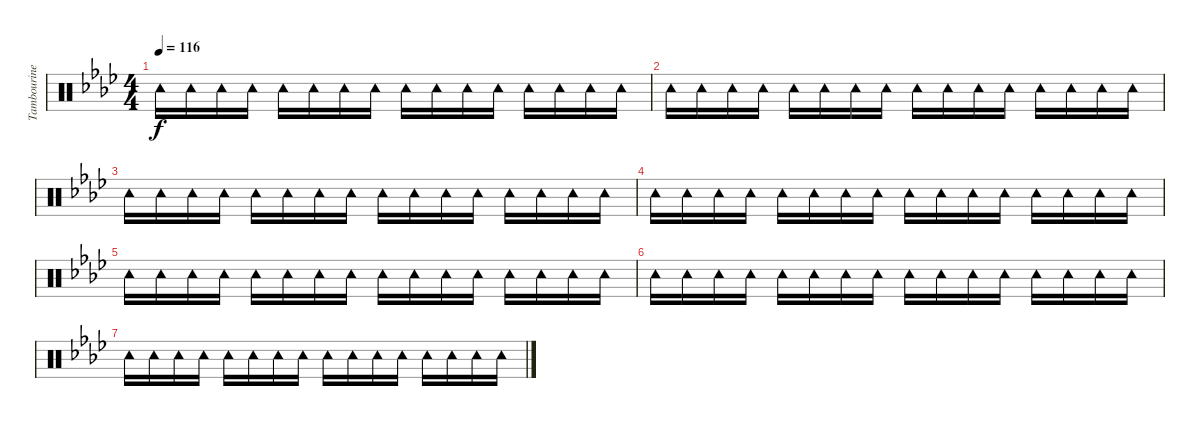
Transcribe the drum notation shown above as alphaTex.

\track ("Tambourine" "Tambourine") {instrument percussion}
\staff {score}
\articulation defaults
\ts (4 4)
\tempo 116
\clef neutral
\ks fminor "Tambourine (hit)".16{dy f} "Tambourine (hit)".16 "Tambourine (hit)".16 "Tambourine (hit)".16 "Tambourine (hit)".16 "Tambourine (hit)".16 "Tambourine (hit)".16 "Tambourine (hit)".16 "Tambourine (hit)".16 "Tambourine (hit)".16 "Tambourine (hit)".16 "Tambourine (hit)".16 "Tambourine (hit)".16 "Tambourine (hit)".16 "Tambourine (hit)".16 "Tambourine (hit)".16
|
"Tambourine (hit)".16 "Tambourine (hit)".16 "Tambourine (hit)".16 "Tambourine (hit)".16 "Tambourine (hit)".16 "Tambourine (hit)".16 "Tambourine (hit)".16 "Tambourine (hit)".16 "Tambourine (hit)".16 "Tambourine (hit)".16 "Tambourine (hit)".16 "Tambourine (hit)".16 "Tambourine (hit)".16 "Tambourine (hit)".16 "Tambourine (hit)".16 "Tambourine (hit)".16 |
"Tambourine (hit)".16 "Tambourine (hit)".16 "Tambourine (hit)".16 "Tambourine (hit)".16 "Tambourine (hit)".16 "Tambourine (hit)".16 "Tambourine (hit)".16 "Tambourine (hit)".16 "Tambourine (hit)".16 "Tambourine (hit)".16 "Tambourine (hit)".16 "Tambourine (hit)".16 "Tambourine (hit)".16 "Tambourine (hit)".16 "Tambourine (hit)".16 "Tambourine (hit)".16 |
"Tambourine (hit)".16 "Tambourine (hit)".16 "Tambourine (hit)".16 "Tambourine (hit)".16 "Tambourine (hit)".16 "Tambourine (hit)".16 "Tambourine (hit)".16 "Tambourine (hit)".16 "Tambourine (hit)".16 "Tambourine (hit)".16 "Tambourine (hit)".16 "Tambourine (hit)".16 "Tambourine (hit)".16 "Tambourine (hit)".16 "Tambourine (hit)".16 "Tambourine (hit)".16 |
"Tambourine (hit)".16 "Tambourine (hit)".16 "Tambourine (hit)".16 "Tambourine (hit)".16 "Tambourine (hit)".16 "Tambourine (hit)".16 "Tambourine (hit)".16 "Tambourine (hit)".16 "Tambourine (hit)".16 "Tambourine (hit)".16 "Tambourine (hit)".16 "Tambourine (hit)".16 "Tambourine (hit)".16 "Tambourine (hit)".16 "Tambourine (hit)".16 "Tambourine (hit)".16 |
"Tambourine (hit)".16 "Tambourine (hit)".16 "Tambourine (hit)".16 "Tambourine (hit)".16 "Tambourine (hit)".16 "Tambourine (hit)".16 "Tambourine (hit)".16 "Tambourine (hit)".16 "Tambourine (hit)".16 "Tambourine (hit)".16 "Tambourine (hit)".16 "Tambourine (hit)".16 "Tambourine (hit)".16 "Tambourine (hit)".16 "Tambourine (hit)".16 "Tambourine (hit)".16 |
"Tambourine (hit)".16 "Tambourine (hit)".16 "Tambourine (hit)".16 "Tambourine (hit)".16 "Tambourine (hit)".16 "Tambourine (hit)".16 "Tambourine (hit)".16 "Tambourine (hit)".16 "Tambourine (hit)".16 "Tambourine (hit)".16 "Tambourine (hit)".16 "Tambourine (hit)".16 "Tambourine (hit)".16 "Tambourine (hit)".16 "Tambourine (hit)".16 "Tambourine (hit)".16
